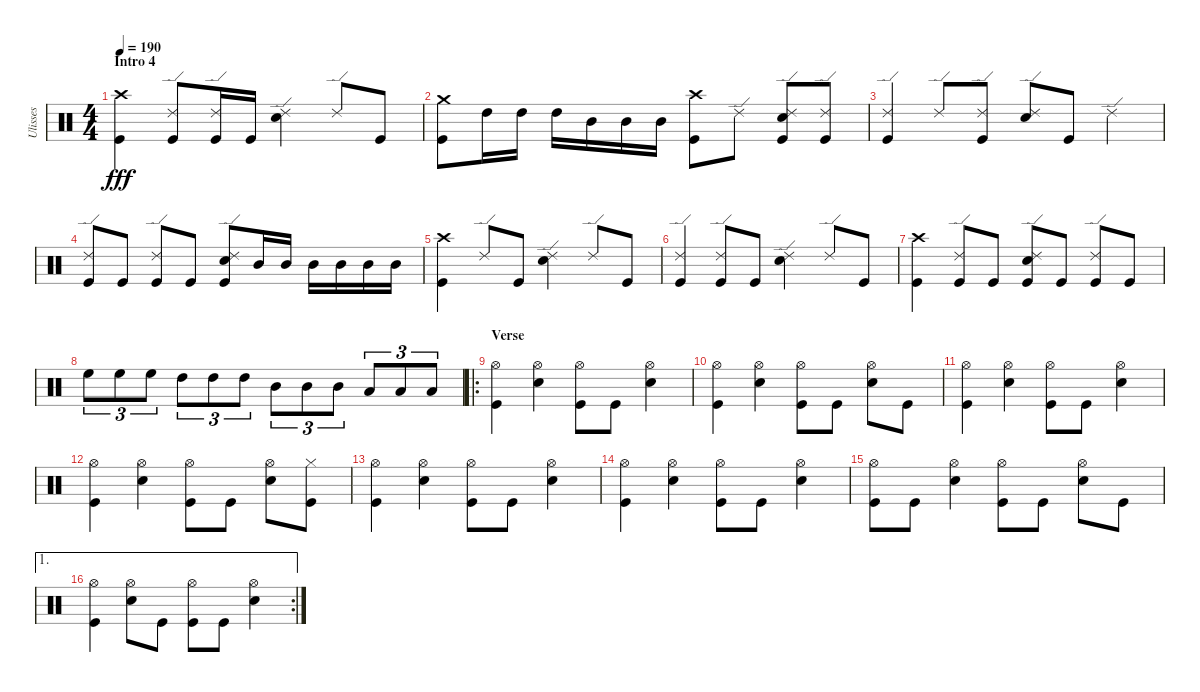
\track ("Ulisses" "Ulisses") {instrument percussion}
\staff {score}
\articulation defaults
\ts (4 4)
\section ("" "Intro 4")
\tempo 190
\clef neutral
\ks c
("Crash high (hit)" "Kick (hit)").4{dy fff} ("Ride (edge) 2" "Kick (hit)").8 ("Ride (edge) 2" "Kick (hit)").16 "Kick (hit)".16 ("Ride (edge) 2" "Electric Snare (hit)").4 "Ride (edge) 2".8 "Kick (hit)".8 |
("Crash medium (hit)" "Kick (hit)").8 "High Tom (hit)".16 "High Tom (hit)".16 "High Tom (hit)".16 "Mid Tom (hit)".16 "Mid Tom (hit)".16 "Mid Tom (hit)".16 ("Crash high (hit)" "Kick (hit)").8 "Ride (edge) 2".8 ("Ride (edge) 2" "Electric Snare (hit)" "Kick (hit)").8 ("Ride (edge) 2" "Kick (hit)").8 |
("Ride (edge) 2" "Kick (hit)").4 "Ride (edge) 2".8 ("Ride (edge) 2" "Kick (hit)").8 ("Ride (edge) 2" "Electric Snare (hit)").8 "Kick (hit)".8 "Ride (edge) 2".4 |
("Ride (edge) 2" "Kick (hit)").8 "Kick (hit)".8 ("Ride (edge) 2" "Kick (hit)").8 "Kick (hit)".8 ("Ride (edge) 2" "Electric Snare (hit)" "Kick (hit)").8 "Mid Tom (hit)".16 "Mid Tom (hit)".16 "Mid Tom (hit)".16 "Mid Tom (hit)".16 "Mid Tom (hit)".16 "Mid Tom (hit)".16 |
("Crash high (hit)" "Kick (hit)").4 "Ride (edge) 2".8 "Kick (hit)".8 ("Ride (edge) 2" "Electric Snare (hit)").4 "Ride (edge) 2".8 "Kick (hit)".8 |
("Ride (edge) 2" "Kick (hit)").4 ("Ride (edge) 2" "Kick (hit)").8 "Kick (hit)".8 ("Ride (edge) 2" "Electric Snare (hit)").4 "Ride (edge) 2".8 "Kick (hit)".8 |
("Crash high (hit)" "Kick (hit)").4 ("Ride (edge) 2" "Kick (hit)").8 "Kick (hit)".8 ("Ride (edge) 2" "Electric Snare (hit)" "Kick (hit)").8 "Kick (hit)".8 ("Ride (edge) 2" "Kick (hit)").8 "Kick (hit)".8 |
"High Floor Tom (hit)".8{tu (3 2)} "High Floor Tom (hit)".8{tu (3 2)} "High Floor Tom (hit)".8{tu (3 2)} "High Tom (hit)".8{tu (3 2)} "High Tom (hit)".8{tu (3 2)} "High Tom (hit)".8{tu (3 2)} "Mid Tom (hit)".8{tu (3 2)} "Mid Tom (hit)".8{tu (3 2)} "Mid Tom (hit)".8{tu (3 2)} "Low Tom (hit)".8{tu (3 2)} "Low Tom (hit)".8{tu (3 2)} "Low Tom (hit)".8{tu (3 2)} |
\ro
\section ("" "Verse")
("Hi-Hat (open)" "Kick (hit)").4 ("Hi-Hat (open)" "Electric Snare (hit)").4 ("Hi-Hat (open)" "Kick (hit)").8 "Kick (hit)".8 ("Hi-Hat (open)" "Electric Snare (hit)").4 |
("Hi-Hat (open)" "Kick (hit)").4 ("Hi-Hat (open)" "Electric Snare (hit)").4 ("Hi-Hat (open)" "Kick (hit)").8 "Kick (hit)".8 ("Hi-Hat (open)" "Electric Snare (hit)").8 "Kick (hit)".8 |
("Hi-Hat (open)" "Kick (hit)").4 ("Hi-Hat (open)" "Electric Snare (hit)").4 ("Hi-Hat (open)" "Kick (hit)").8 "Kick (hit)".8 ("Hi-Hat (open)" "Electric Snare (hit)").4 |
("Hi-Hat (open)" "Kick (hit)").4 ("Hi-Hat (open)" "Electric Snare (hit)").4 ("Hi-Hat (open)" "Kick (hit)").8 "Kick (hit)".8 ("Hi-Hat (open)" "Electric Snare (hit)").8 ("Hi-Hat (closed)" "Kick (hit)").8 |
("Hi-Hat (open)" "Kick (hit)").4 ("Hi-Hat (open)" "Electric Snare (hit)").4 ("Hi-Hat (open)" "Kick (hit)").8 "Kick (hit)".8 ("Hi-Hat (open)" "Electric Snare (hit)").4 |
("Hi-Hat (open)" "Kick (hit)").4 ("Hi-Hat (open)" "Electric Snare (hit)").4 ("Hi-Hat (open)" "Kick (hit)").8 "Kick (hit)".8 ("Hi-Hat (open)" "Electric Snare (hit)").4 |
("Hi-Hat (open)" "Kick (hit)").8 "Kick (hit)".8 ("Hi-Hat (open)" "Electric Snare (hit)").4 ("Hi-Hat (open)" "Kick (hit)").8 "Kick (hit)".8 ("Hi-Hat (open)" "Electric Snare (hit)").8 "Kick (hit)".8 |
\ae 1
\rc 2
("Hi-Hat (open)" "Kick (hit)").4 ("Hi-Hat (open)" "Electric Snare (hit)").8 "Kick (hit)".8 ("Hi-Hat (open)" "Kick (hit)").8 "Kick (hit)".8 ("Hi-Hat (open)" "Electric Snare (hit)").4
